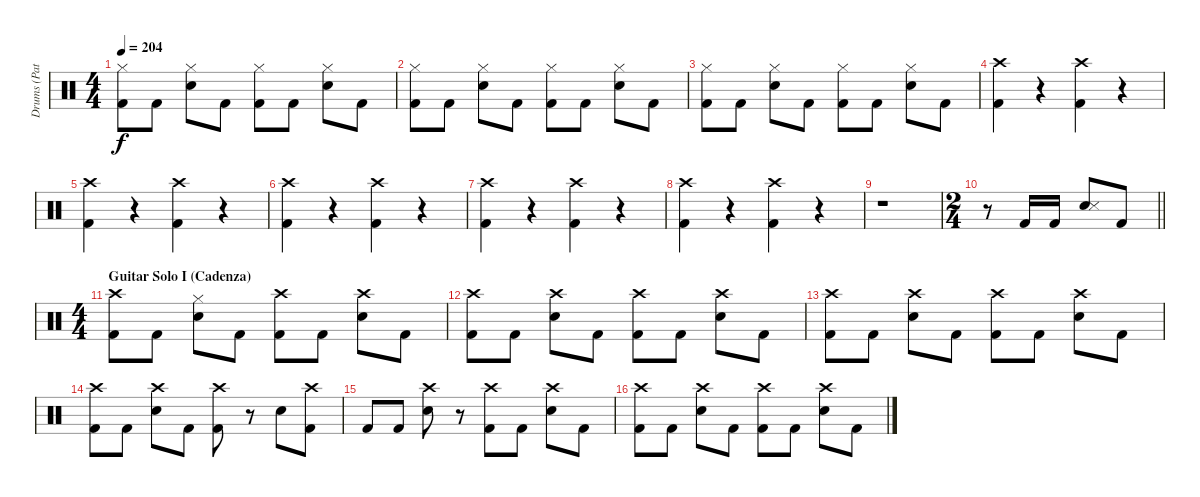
\track ("Drums (Patrick Johansson)" "Drums (Pat") {instrument percussion}
\staff {score}
\articulation defaults
\ts (4 4)
\tempo 204
\clef neutral
\ks c
("Hi-Hat (closed)" "Kick (hit) 2").8{dy f} "Kick (hit) 2".8 ("Electric Snare (hit)" "Hi-Hat (closed)").8 "Kick (hit) 2".8 ("Hi-Hat (closed)" "Kick (hit) 2").8 "Kick (hit) 2".8 ("Electric Snare (hit)" "Hi-Hat (closed)").8 "Kick (hit) 2".8 |
("Hi-Hat (closed)" "Kick (hit) 2").8 "Kick (hit) 2".8 ("Electric Snare (hit)" "Hi-Hat (closed)").8 "Kick (hit) 2".8 ("Hi-Hat (closed)" "Kick (hit) 2").8 "Kick (hit) 2".8 ("Electric Snare (hit)" "Hi-Hat (closed)").8 "Kick (hit) 2".8 |
("Hi-Hat (closed)" "Kick (hit) 2").8 "Kick (hit) 2".8 ("Electric Snare (hit)" "Hi-Hat (closed)").8 "Kick (hit) 2".8 ("Hi-Hat (closed)" "Kick (hit) 2").8 "Kick (hit) 2".8 ("Electric Snare (hit)" "Hi-Hat (closed)").8 "Kick (hit) 2".8 |
("Crash high (hit)" "Kick (hit) 2").4 r.4 ("Crash high (hit)" "Kick (hit) 2").4 r.4 |
("Crash high (hit)" "Kick (hit) 2").4 r.4 ("Crash high (hit)" "Kick (hit) 2").4 r.4 |
("Crash high (hit)" "Kick (hit) 2").4 r.4 ("Crash high (hit)" "Kick (hit) 2").4 r.4 |
("Crash high (hit)" "Kick (hit) 2").4 r.4 ("Crash high (hit)" "Kick (hit) 2").4 r.4 |
("Crash high (hit)" "Kick (hit) 2").4 r.4 ("Crash high (hit)" "Kick (hit) 2").4 r.4 |
r.1 |
\ts (2 4)
\barLineRight lightlight
r.8 "Kick (hit) 2".16 "Kick (hit) 2".16 ("Electric Snare (hit)" "Snare (side stick) 3").8 "Kick (hit) 2".8 |
\ts (4 4)
\section ("" "Guitar Solo I (Cadenza)")
("Crash high (hit)" "Kick (hit) 2").8 "Kick (hit) 2".8 ("Electric Snare (hit)" "Hi-Hat (closed)").8 "Kick (hit) 2".8 ("Crash high (hit)" "Kick (hit) 2").8 "Kick (hit) 2".8 ("Crash high (hit)" "Electric Snare (hit)").8 "Kick (hit) 2".8 |
("Crash high (hit)" "Kick (hit) 2").8 "Kick (hit) 2".8 ("Crash high (hit)" "Electric Snare (hit)").8 "Kick (hit) 2".8 ("Crash high (hit)" "Kick (hit) 2").8 "Kick (hit) 2".8 ("Crash high (hit)" "Electric Snare (hit)").8 "Kick (hit) 2".8 |
("Crash high (hit)" "Kick (hit) 2").8 "Kick (hit) 2".8 ("Crash high (hit)" "Electric Snare (hit)").8 "Kick (hit) 2".8 ("Crash high (hit)" "Kick (hit) 2").8 "Kick (hit) 2".8 ("Crash high (hit)" "Electric Snare (hit)").8 "Kick (hit) 2".8 |
("Crash high (hit)" "Kick (hit) 2").8 "Kick (hit) 2".8 ("Crash high (hit)" "Electric Snare (hit)").8 "Kick (hit) 2".8 ("Crash high (hit)" "Kick (hit) 2").8 r.8 "Electric Snare (hit)".8 ("Crash high (hit)" "Kick (hit) 2").8 |
"Kick (hit) 2".8 "Kick (hit) 2".8 ("Crash high (hit)" "Electric Snare (hit)").8 r.8 ("Crash high (hit)" "Kick (hit) 2").8 "Kick (hit) 2".8 ("Crash high (hit)" "Electric Snare (hit)").8 "Kick (hit) 2".8 |
("Crash high (hit)" "Kick (hit) 2").8 "Kick (hit) 2".8 ("Crash high (hit)" "Electric Snare (hit)").8 "Kick (hit) 2".8 ("Crash high (hit)" "Kick (hit) 2").8 "Kick (hit) 2".8 ("Crash high (hit)" "Electric Snare (hit)").8 "Kick (hit) 2".8
